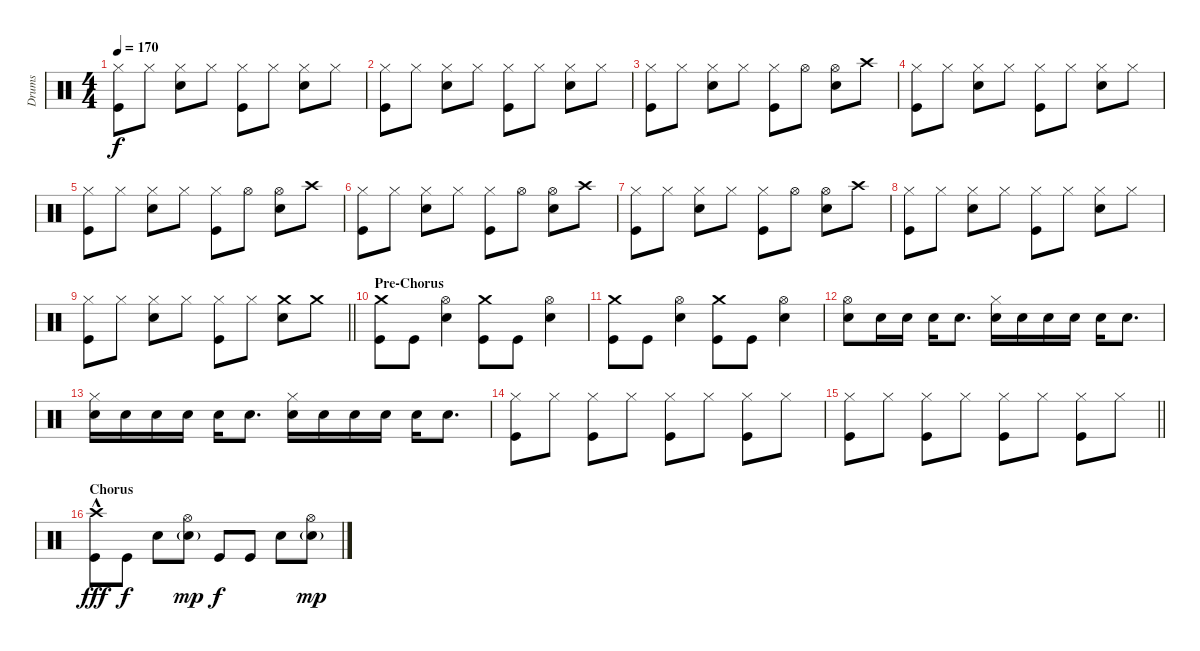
\track ("Drums" "Drums") {instrument percussion}
\staff {score}
\articulation defaults
\ts (4 4)
\tempo 170
\clef neutral
\ks c
("Hi-Hat (closed)" "Kick (hit)").8{dy f} "Hi-Hat (closed)".8 ("Hi-Hat (closed)" "Electric Snare (hit)").8 "Hi-Hat (closed)".8 ("Hi-Hat (closed)" "Kick (hit)").8 "Hi-Hat (closed)".8 ("Hi-Hat (closed)" "Electric Snare (hit)").8 "Hi-Hat (closed)".8 |
("Hi-Hat (closed)" "Kick (hit)").8 "Hi-Hat (closed)".8 ("Hi-Hat (closed)" "Electric Snare (hit)").8 "Hi-Hat (closed)".8 ("Hi-Hat (closed)" "Kick (hit)").8 "Hi-Hat (closed)".8 ("Hi-Hat (closed)" "Electric Snare (hit)").8 "Hi-Hat (closed)".8 |
("Hi-Hat (closed)" "Kick (hit)").8 "Hi-Hat (closed)".8 ("Hi-Hat (closed)" "Electric Snare (hit)").8 "Hi-Hat (closed)".8 ("Hi-Hat (closed)" "Kick (hit)").8 "Hi-Hat (open)".8 ("Hi-Hat (open)" "Electric Snare (hit)").8 "Crash high (hit)".8 |
("Hi-Hat (closed)" "Kick (hit)").8 "Hi-Hat (closed)".8 ("Hi-Hat (closed)" "Electric Snare (hit)").8 "Hi-Hat (closed)".8 ("Hi-Hat (closed)" "Kick (hit)").8 "Hi-Hat (closed)".8 ("Hi-Hat (closed)" "Electric Snare (hit)").8 "Hi-Hat (closed)".8 |
("Hi-Hat (closed)" "Kick (hit)").8 "Hi-Hat (closed)".8 ("Hi-Hat (closed)" "Electric Snare (hit)").8 "Hi-Hat (closed)".8 ("Hi-Hat (closed)" "Kick (hit)").8 "Hi-Hat (open)".8 ("Hi-Hat (open)" "Electric Snare (hit)").8 "Crash high (hit)".8 |
("Hi-Hat (closed)" "Kick (hit)").8 "Hi-Hat (closed)".8 ("Hi-Hat (closed)" "Electric Snare (hit)").8 "Hi-Hat (closed)".8 ("Hi-Hat (closed)" "Kick (hit)").8 "Hi-Hat (open)".8 ("Hi-Hat (open)" "Electric Snare (hit)").8 "Crash high (hit)".8 |
("Hi-Hat (closed)" "Kick (hit)").8 "Hi-Hat (closed)".8 ("Hi-Hat (closed)" "Electric Snare (hit)").8 "Hi-Hat (closed)".8 ("Hi-Hat (closed)" "Kick (hit)").8 "Hi-Hat (open)".8 ("Hi-Hat (open)" "Electric Snare (hit)").8 "Crash high (hit)".8 |
("Hi-Hat (closed)" "Kick (hit)").8 "Hi-Hat (closed)".8 ("Hi-Hat (closed)" "Electric Snare (hit)").8 "Hi-Hat (closed)".8 ("Hi-Hat (closed)" "Kick (hit)").8 "Hi-Hat (closed)".8 ("Hi-Hat (closed)" "Electric Snare (hit)").8 "Hi-Hat (closed)".8 |
\barLineRight lightlight
("Hi-Hat (closed)" "Kick (hit)").8 "Hi-Hat (closed)".8 ("Hi-Hat (closed)" "Electric Snare (hit)").8 "Hi-Hat (closed)".8 ("Hi-Hat (closed)" "Kick (hit)").8 "Hi-Hat (closed)".8 ("Crash medium (hit)" "Electric Snare (hit)").8 "Crash medium (hit)".8 |
\section ("" "Pre-Chorus")
("Crash medium (hit)" "Kick (hit)").8 "Kick (hit)".8 ("Hi-Hat (open)" "Electric Snare (hit)").4 ("Crash medium (hit)" "Kick (hit)").8 "Kick (hit)".8 ("Hi-Hat (open)" "Electric Snare (hit)").4 |
("Crash medium (hit)" "Kick (hit)").8 "Kick (hit)".8 ("Hi-Hat (open)" "Electric Snare (hit)").4 ("Crash medium (hit)" "Kick (hit)").8 "Kick (hit)".8 ("Hi-Hat (open)" "Electric Snare (hit)").4 |
("Hi-Hat (open)" "Electric Snare (hit)").8 "Electric Snare (hit)".16 "Electric Snare (hit)".16 "Electric Snare (hit)".16 "Electric Snare (hit)".8{d} ("Hi-Hat (closed)" "Electric Snare (hit)").16 "Electric Snare (hit)".16 "Electric Snare (hit)".16 "Electric Snare (hit)".16 "Electric Snare (hit)".16 "Electric Snare (hit)".8{d} |
("Hi-Hat (closed)" "Electric Snare (hit)").16 "Electric Snare (hit)".16 "Electric Snare (hit)".16 "Electric Snare (hit)".16 "Electric Snare (hit)".16 "Electric Snare (hit)".8{d} ("Hi-Hat (closed)" "Electric Snare (hit)").16 "Electric Snare (hit)".16 "Electric Snare (hit)".16 "Electric Snare (hit)".16 "Electric Snare (hit)".16 "Electric Snare (hit)".8{d} |
("Hi-Hat (closed)" "Kick (hit)").8 "Hi-Hat (closed)".8 ("Hi-Hat (closed)" "Kick (hit)").8 "Hi-Hat (closed)".8 ("Hi-Hat (closed)" "Kick (hit)").8 "Hi-Hat (closed)".8 ("Hi-Hat (closed)" "Kick (hit)").8 "Hi-Hat (closed)".8 |
\barLineRight lightlight
("Hi-Hat (closed)" "Kick (hit)").8 "Hi-Hat (closed)".8 ("Hi-Hat (closed)" "Kick (hit)").8 "Hi-Hat (closed)".8 ("Hi-Hat (closed)" "Kick (hit)").8 "Hi-Hat (closed)".8 ("Hi-Hat (closed)" "Kick (hit)").8 "Hi-Hat (closed)".8 |
\section ("" "Chorus")
("Crash high (hit)"{hac} "Kick (hit)").8{dy fff} "Kick (hit)".8{dy f} "Electric Snare (hit)".8 ("Hi-Hat (open)" "Electric Snare (hit)"{g}).8{dy mp} "Kick (hit)".8{dy f} "Kick (hit)".8 "Electric Snare (hit)".8 ("Hi-Hat (open)" "Electric Snare (hit)"{g}).8{dy mp}
